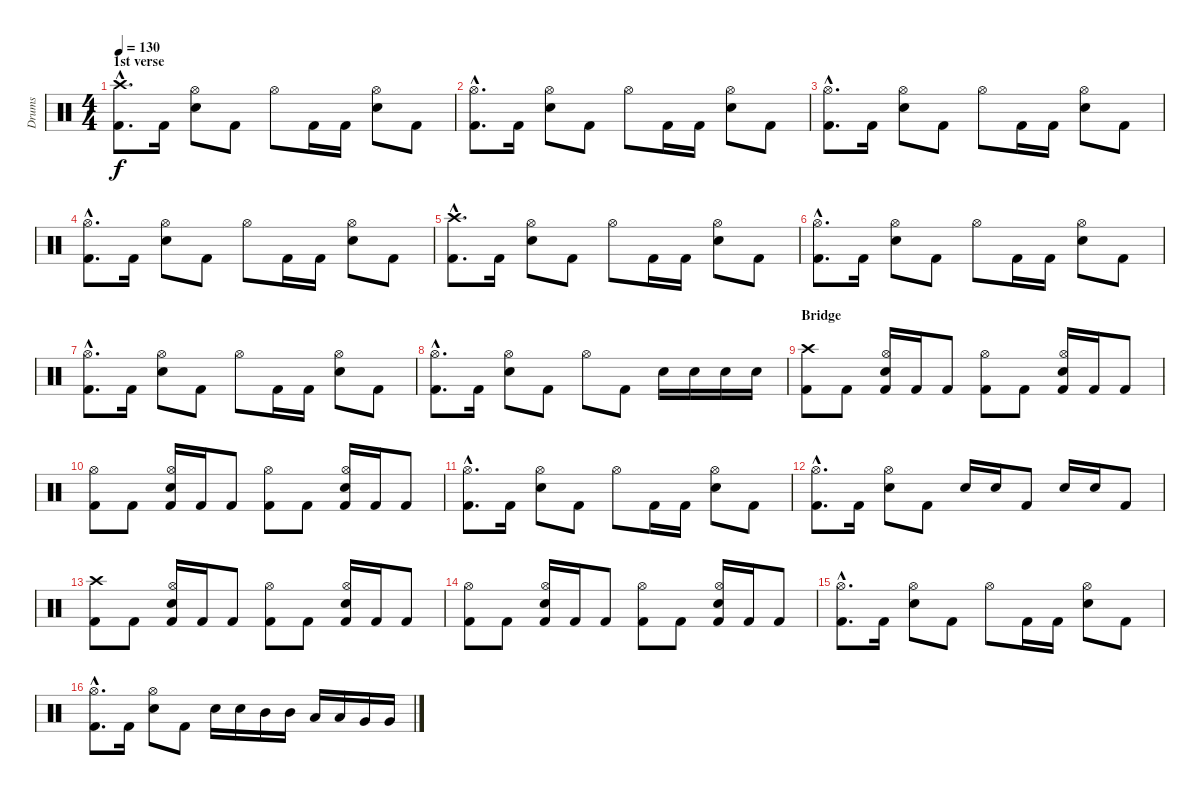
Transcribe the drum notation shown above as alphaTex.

\track ("Drums" "Drums") {instrument percussion}
\staff {score}
\articulation defaults
\ts (4 4)
\section ("" "1st verse")
\tempo 130
\clef neutral
\ks c
("Crash high (hit)"{hac} "Kick (hit) 2"{hac}).8{d dy f} "Kick (hit) 2".16 ("Hi-Hat (open)" "Snare (hit) 2").8 "Kick (hit) 2".8 "Hi-Hat (open)".8 "Kick (hit) 2".16 "Kick (hit) 2".16 ("Hi-Hat (open)" "Snare (hit) 2").8 "Kick (hit) 2".8 |
("Hi-Hat (open)"{hac} "Kick (hit) 2"{hac}).8{d} "Kick (hit) 2".16 ("Hi-Hat (open)" "Snare (hit) 2").8 "Kick (hit) 2".8 "Hi-Hat (open)".8 "Kick (hit) 2".16 "Kick (hit) 2".16 ("Hi-Hat (open)" "Snare (hit) 2").8 "Kick (hit) 2".8 |
("Hi-Hat (open)"{hac} "Kick (hit) 2"{hac}).8{d} "Kick (hit) 2".16 ("Hi-Hat (open)" "Snare (hit) 2").8 "Kick (hit) 2".8 "Hi-Hat (open)".8 "Kick (hit) 2".16 "Kick (hit) 2".16 ("Hi-Hat (open)" "Snare (hit) 2").8 "Kick (hit) 2".8 |
("Hi-Hat (open)"{hac} "Kick (hit) 2"{hac}).8{d} "Kick (hit) 2".16 ("Hi-Hat (open)" "Snare (hit) 2").8 "Kick (hit) 2".8 "Hi-Hat (open)".8 "Kick (hit) 2".16 "Kick (hit) 2".16 ("Hi-Hat (open)" "Snare (hit) 2").8 "Kick (hit) 2".8 |
("Crash high (hit)"{hac} "Kick (hit) 2"{hac}).8{d} "Kick (hit) 2".16 ("Hi-Hat (open)" "Snare (hit) 2").8 "Kick (hit) 2".8 "Hi-Hat (open)".8 "Kick (hit) 2".16 "Kick (hit) 2".16 ("Hi-Hat (open)" "Snare (hit) 2").8 "Kick (hit) 2".8 |
("Hi-Hat (open)"{hac} "Kick (hit) 2"{hac}).8{d} "Kick (hit) 2".16 ("Hi-Hat (open)" "Snare (hit) 2").8 "Kick (hit) 2".8 "Hi-Hat (open)".8 "Kick (hit) 2".16 "Kick (hit) 2".16 ("Hi-Hat (open)" "Snare (hit) 2").8 "Kick (hit) 2".8 |
("Hi-Hat (open)"{hac} "Kick (hit) 2"{hac}).8{d} "Kick (hit) 2".16 ("Hi-Hat (open)" "Snare (hit) 2").8 "Kick (hit) 2".8 "Hi-Hat (open)".8 "Kick (hit) 2".16 "Kick (hit) 2".16 ("Hi-Hat (open)" "Snare (hit) 2").8 "Kick (hit) 2".8 |
("Hi-Hat (open)"{hac} "Kick (hit) 2"{hac}).8{d} "Kick (hit) 2".16 ("Hi-Hat (open)" "Snare (hit) 2").8 "Kick (hit) 2".8 "Hi-Hat (open)".8 "Kick (hit) 2".8 "Snare (hit) 2".16 "Snare (hit) 2".16 "Snare (hit) 2".16 "Snare (hit) 2".16 |
\section ("" "Bridge ")
("Crash high (hit)" "Kick (hit) 2").8 "Kick (hit) 2".8 ("Hi-Hat (open)" "Snare (hit) 2" "Kick (hit) 2").16 "Kick (hit) 2".16 "Kick (hit) 2".8 ("Hi-Hat (open)" "Kick (hit) 2").8 "Kick (hit) 2".8 ("Hi-Hat (open)" "Snare (hit) 2" "Kick (hit) 2").16 "Kick (hit) 2".16 "Kick (hit) 2".8 |
("Hi-Hat (open)" "Kick (hit) 2").8 "Kick (hit) 2".8 ("Hi-Hat (open)" "Snare (hit) 2" "Kick (hit) 2").16 "Kick (hit) 2".16 "Kick (hit) 2".8 ("Hi-Hat (open)" "Kick (hit) 2").8 "Kick (hit) 2".8 ("Hi-Hat (open)" "Snare (hit) 2" "Kick (hit) 2").16 "Kick (hit) 2".16 "Kick (hit) 2".8 |
("Hi-Hat (open)"{hac} "Kick (hit) 2"{hac}).8{d} "Kick (hit) 2".16 ("Hi-Hat (open)" "Snare (hit) 2").8 "Kick (hit) 2".8 "Hi-Hat (open)".8 "Kick (hit) 2".16 "Kick (hit) 2".16 ("Hi-Hat (open)" "Snare (hit) 2").8 "Kick (hit) 2".8 |
("Hi-Hat (open)"{hac} "Kick (hit) 2"{hac}).8{d} "Kick (hit) 2".16 ("Hi-Hat (open)" "Snare (hit) 2").8 "Kick (hit) 2".8 "Snare (hit) 2".16 "Snare (hit) 2".16 "Kick (hit) 2".8 "Snare (hit) 2".16 "Snare (hit) 2".16 "Kick (hit) 2".8 |
("Crash high (hit)" "Kick (hit) 2").8 "Kick (hit) 2".8 ("Hi-Hat (open)" "Snare (hit) 2" "Kick (hit) 2").16 "Kick (hit) 2".16 "Kick (hit) 2".8 ("Hi-Hat (open)" "Kick (hit) 2").8 "Kick (hit) 2".8 ("Hi-Hat (open)" "Snare (hit) 2" "Kick (hit) 2").16 "Kick (hit) 2".16 "Kick (hit) 2".8 |
("Hi-Hat (open)" "Kick (hit) 2").8 "Kick (hit) 2".8 ("Hi-Hat (open)" "Snare (hit) 2" "Kick (hit) 2").16 "Kick (hit) 2".16 "Kick (hit) 2".8 ("Hi-Hat (open)" "Kick (hit) 2").8 "Kick (hit) 2".8 ("Hi-Hat (open)" "Snare (hit) 2" "Kick (hit) 2").16 "Kick (hit) 2".16 "Kick (hit) 2".8 |
("Hi-Hat (open)"{hac} "Kick (hit) 2"{hac}).8{d} "Kick (hit) 2".16 ("Hi-Hat (open)" "Snare (hit) 2").8 "Kick (hit) 2".8 "Hi-Hat (open)".8 "Kick (hit) 2".16 "Kick (hit) 2".16 ("Hi-Hat (open)" "Snare (hit) 2").8 "Kick (hit) 2".8 |
("Hi-Hat (open)"{hac} "Kick (hit) 2"{hac}).8{d} "Kick (hit) 2".16 ("Hi-Hat (open)" "Snare (hit) 2").8 "Kick (hit) 2".8 "Snare (hit) 2".16 "Snare (hit) 2".16 "Mid Tom (hit)".16 "Mid Tom (hit)".16 "Low Tom (hit)".16 "Low Tom (hit)".16 "Very Low Tom (hit)".16 "Very Low Tom (hit)".16
